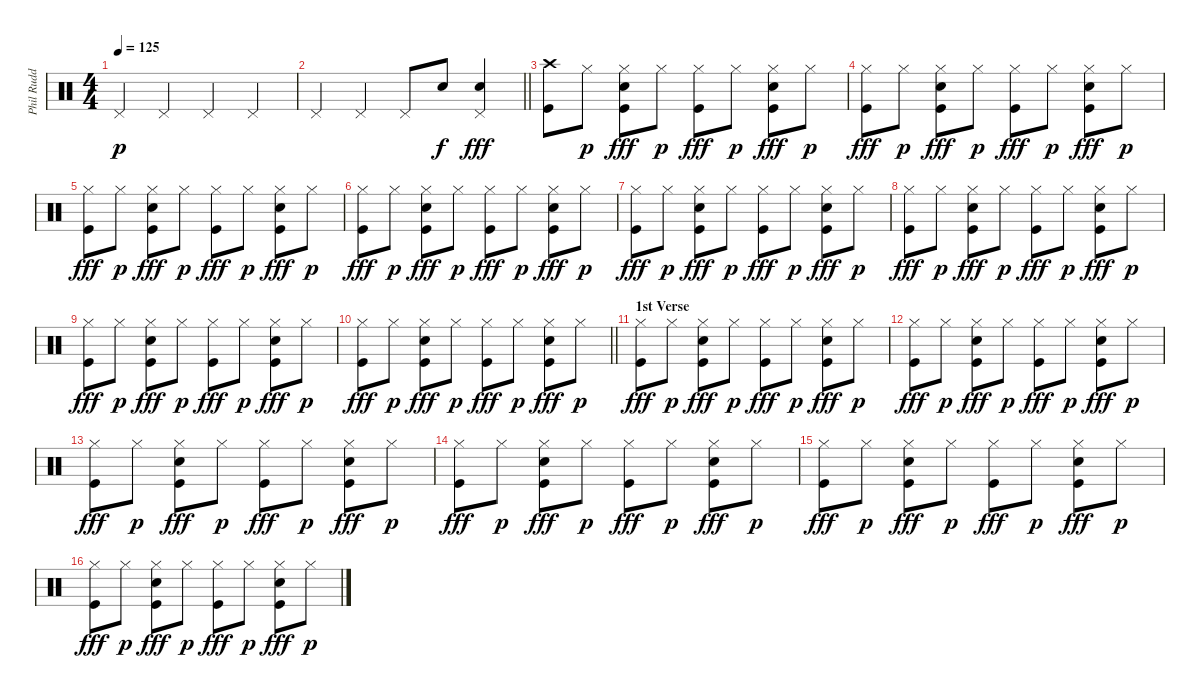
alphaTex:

\track ("Phil Rudd" "Phil Rudd") {instrument percussion}
\staff {score}
\articulation defaults
\ts (4 4)
\tempo 125
\clef neutral
\ks c "Pedal Hi-Hat (hit)".4{dy p} "Pedal Hi-Hat (hit)".4 "Pedal Hi-Hat (hit)".4 "Pedal Hi-Hat (hit)".4
|
\barLineRight lightlight "Pedal Hi-Hat (hit)".4 "Pedal Hi-Hat (hit)".4 "Pedal Hi-Hat (hit)".8 "Snare (hit) 2".8{dy f}
("Pedal Hi-Hat (hit)" "Snare (hit) 2").4{dy fff} |
("Crash high (hit)" "Kick (hit)").8 "Hi-Hat (closed)".8{dy p} ("Hi-Hat (closed)" "Snare (hit) 2" "Kick (hit)").8{dy fff} "Hi-Hat (closed)".8{dy p} ("Hi-Hat (closed)" "Kick (hit)").8{dy fff} "Hi-Hat (closed)".8{dy p} ("Hi-Hat (closed)" "Snare (hit) 2" "Kick (hit)").8{dy fff} "Hi-Hat (closed)".8{dy p} |
("Hi-Hat (closed)" "Kick (hit)").8{dy fff} "Hi-Hat (closed)".8{dy p} ("Hi-Hat (closed)" "Snare (hit) 2" "Kick (hit)").8{dy fff} "Hi-Hat (closed)".8{dy p} ("Hi-Hat (closed)" "Kick (hit)").8{dy fff} "Hi-Hat (closed)".8{dy p} ("Hi-Hat (closed)" "Snare (hit) 2" "Kick (hit)").8{dy fff} "Hi-Hat (closed)".8{dy p} |
("Hi-Hat (closed)" "Kick (hit)").8{dy fff} "Hi-Hat (closed)".8{dy p} ("Hi-Hat (closed)" "Snare (hit) 2" "Kick (hit)").8{dy fff} "Hi-Hat (closed)".8{dy p} ("Hi-Hat (closed)" "Kick (hit)").8{dy fff} "Hi-Hat (closed)".8{dy p} ("Hi-Hat (closed)" "Snare (hit) 2" "Kick (hit)").8{dy fff} "Hi-Hat (closed)".8{dy p} |
("Hi-Hat (closed)" "Kick (hit)").8{dy fff} "Hi-Hat (closed)".8{dy p} ("Hi-Hat (closed)" "Snare (hit) 2" "Kick (hit)").8{dy fff} "Hi-Hat (closed)".8{dy p} ("Hi-Hat (closed)" "Kick (hit)").8{dy fff} "Hi-Hat (closed)".8{dy p} ("Hi-Hat (closed)" "Snare (hit) 2" "Kick (hit)").8{dy fff} "Hi-Hat (closed)".8{dy p} |
("Hi-Hat (closed)" "Kick (hit)").8{dy fff} "Hi-Hat (closed)".8{dy p} ("Hi-Hat (closed)" "Snare (hit) 2" "Kick (hit)").8{dy fff} "Hi-Hat (closed)".8{dy p} ("Hi-Hat (closed)" "Kick (hit)").8{dy fff} "Hi-Hat (closed)".8{dy p} ("Hi-Hat (closed)" "Snare (hit) 2" "Kick (hit)").8{dy fff} "Hi-Hat (closed)".8{dy p} |
("Hi-Hat (closed)" "Kick (hit)").8{dy fff} "Hi-Hat (closed)".8{dy p} ("Hi-Hat (closed)" "Snare (hit) 2" "Kick (hit)").8{dy fff} "Hi-Hat (closed)".8{dy p} ("Hi-Hat (closed)" "Kick (hit)").8{dy fff} "Hi-Hat (closed)".8{dy p} ("Hi-Hat (closed)" "Snare (hit) 2" "Kick (hit)").8{dy fff} "Hi-Hat (closed)".8{dy p} |
("Hi-Hat (closed)" "Kick (hit)").8{dy fff} "Hi-Hat (closed)".8{dy p} ("Hi-Hat (closed)" "Snare (hit) 2" "Kick (hit)").8{dy fff} "Hi-Hat (closed)".8{dy p} ("Hi-Hat (closed)" "Kick (hit)").8{dy fff} "Hi-Hat (closed)".8{dy p} ("Hi-Hat (closed)" "Snare (hit) 2" "Kick (hit)").8{dy fff} "Hi-Hat (closed)".8{dy p} |
\barLineRight lightlight
("Hi-Hat (closed)" "Kick (hit)").8{dy fff} "Hi-Hat (closed)".8{dy p} ("Hi-Hat (closed)" "Snare (hit) 2" "Kick (hit)").8{dy fff} "Hi-Hat (closed)".8{dy p} ("Hi-Hat (closed)" "Kick (hit)").8{dy fff} "Hi-Hat (closed)".8{dy p} ("Hi-Hat (closed)" "Snare (hit) 2" "Kick (hit)").8{dy fff} "Hi-Hat (closed)".8{dy p} |
\section ("" "1st Verse")
("Hi-Hat (closed)" "Kick (hit)").8{dy fff} "Hi-Hat (closed)".8{dy p} ("Hi-Hat (closed)" "Snare (hit) 2" "Kick (hit)").8{dy fff} "Hi-Hat (closed)".8{dy p} ("Hi-Hat (closed)" "Kick (hit)").8{dy fff} "Hi-Hat (closed)".8{dy p} ("Hi-Hat (closed)" "Snare (hit) 2" "Kick (hit)").8{dy fff} "Hi-Hat (closed)".8{dy p} |
("Hi-Hat (closed)" "Kick (hit)").8{dy fff} "Hi-Hat (closed)".8{dy p} ("Hi-Hat (closed)" "Snare (hit) 2" "Kick (hit)").8{dy fff} "Hi-Hat (closed)".8{dy p} ("Hi-Hat (closed)" "Kick (hit)").8{dy fff} "Hi-Hat (closed)".8{dy p} ("Hi-Hat (closed)" "Snare (hit) 2" "Kick (hit)").8{dy fff} "Hi-Hat (closed)".8{dy p} |
("Hi-Hat (closed)" "Kick (hit)").8{dy fff} "Hi-Hat (closed)".8{dy p} ("Hi-Hat (closed)" "Snare (hit) 2" "Kick (hit)").8{dy fff} "Hi-Hat (closed)".8{dy p} ("Hi-Hat (closed)" "Kick (hit)").8{dy fff} "Hi-Hat (closed)".8{dy p} ("Hi-Hat (closed)" "Snare (hit) 2" "Kick (hit)").8{dy fff} "Hi-Hat (closed)".8{dy p} |
("Hi-Hat (closed)" "Kick (hit)").8{dy fff} "Hi-Hat (closed)".8{dy p} ("Hi-Hat (closed)" "Snare (hit) 2" "Kick (hit)").8{dy fff} "Hi-Hat (closed)".8{dy p} ("Hi-Hat (closed)" "Kick (hit)").8{dy fff} "Hi-Hat (closed)".8{dy p} ("Hi-Hat (closed)" "Snare (hit) 2" "Kick (hit)").8{dy fff} "Hi-Hat (closed)".8{dy p} |
("Hi-Hat (closed)" "Kick (hit)").8{dy fff} "Hi-Hat (closed)".8{dy p} ("Hi-Hat (closed)" "Snare (hit) 2" "Kick (hit)").8{dy fff} "Hi-Hat (closed)".8{dy p} ("Hi-Hat (closed)" "Kick (hit)").8{dy fff} "Hi-Hat (closed)".8{dy p} ("Hi-Hat (closed)" "Snare (hit) 2" "Kick (hit)").8{dy fff} "Hi-Hat (closed)".8{dy p} |
("Hi-Hat (closed)" "Kick (hit)").8{dy fff} "Hi-Hat (closed)".8{dy p} ("Hi-Hat (closed)" "Snare (hit) 2" "Kick (hit)").8{dy fff} "Hi-Hat (closed)".8{dy p} ("Hi-Hat (closed)" "Kick (hit)").8{dy fff} "Hi-Hat (closed)".8{dy p} ("Hi-Hat (closed)" "Snare (hit) 2" "Kick (hit)").8{dy fff} "Hi-Hat (closed)".8{dy p}
